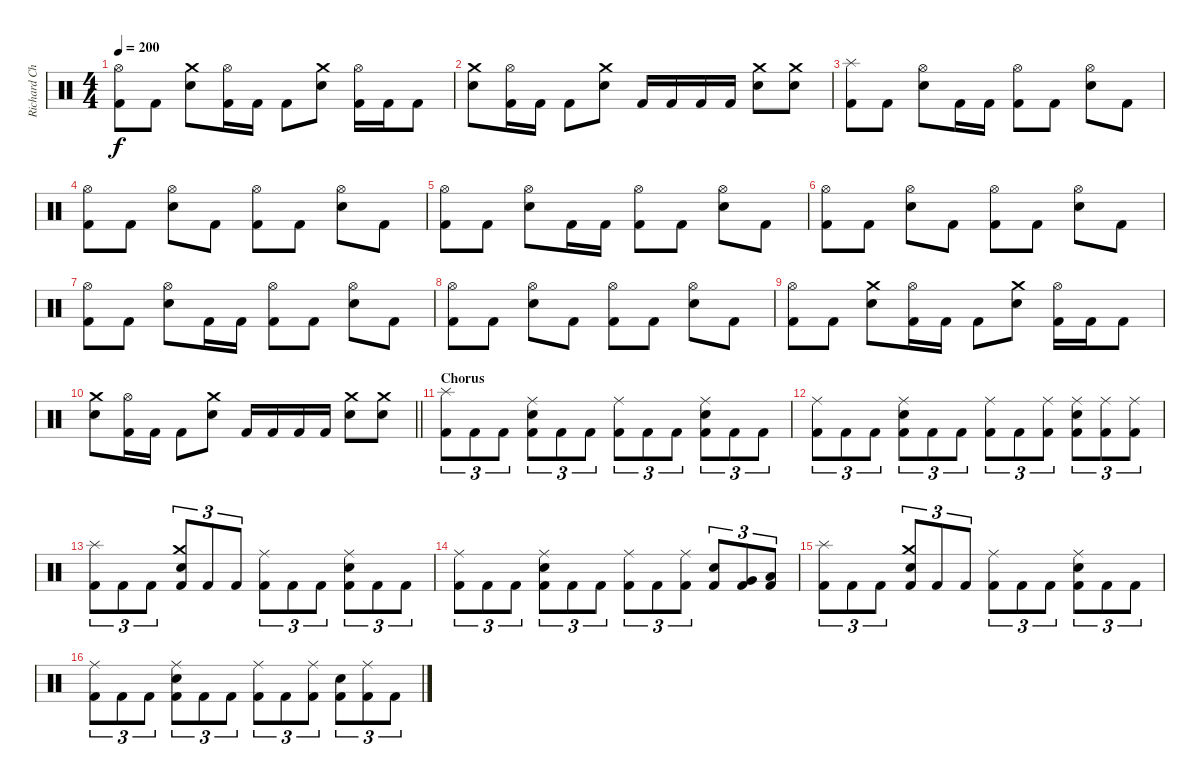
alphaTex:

\track ("Richard Christy" "Richard Ch") {instrument percussion}
\staff {score}
\articulation defaults
\ts (4 4)
\tempo 200
\clef neutral
\ks c
("Hi-Hat (open)" "Kick (hit) 2").8{dy f} "Kick (hit) 2".8 ("Crash medium (hit)" "Electric Snare (hit)").8 ("Hi-Hat (open)" "Kick (hit) 2").16 "Kick (hit) 2".16 "Kick (hit) 2".8 ("Crash medium (hit)" "Electric Snare (hit)").8 ("Hi-Hat (open)" "Kick (hit) 2").16 "Kick (hit) 2".16 "Kick (hit) 2".8 |
("Crash medium (hit)" "Electric Snare (hit)").8 ("Hi-Hat (open)" "Kick (hit) 2").16 "Kick (hit) 2".16 "Kick (hit) 2".8 ("Crash medium (hit)" "Electric Snare (hit)").8 "Kick (hit) 2".16 "Kick (hit) 2".16 "Kick (hit) 2".16 "Kick (hit) 2".16 ("Crash medium (hit)" "Electric Snare (hit)").8 ("Crash medium (hit)" "Electric Snare (hit)").8 |
("Splash (hit)" "Kick (hit) 2").8 "Kick (hit) 2".8 ("Hi-Hat (open)" "Electric Snare (hit)").8 "Kick (hit) 2".16 "Kick (hit) 2".16 ("Hi-Hat (open)" "Kick (hit) 2").8 "Kick (hit) 2".8 ("Hi-Hat (open)" "Electric Snare (hit)").8 "Kick (hit) 2".8 |
("Hi-Hat (open)" "Kick (hit) 2").8 "Kick (hit) 2".8 ("Hi-Hat (open)" "Electric Snare (hit)").8 "Kick (hit) 2".8 ("Hi-Hat (open)" "Kick (hit) 2").8 "Kick (hit) 2".8 ("Hi-Hat (open)" "Electric Snare (hit)").8 "Kick (hit) 2".8 |
("Hi-Hat (open)" "Kick (hit) 2").8 "Kick (hit) 2".8 ("Hi-Hat (open)" "Electric Snare (hit)").8 "Kick (hit) 2".16 "Kick (hit) 2".16 ("Hi-Hat (open)" "Kick (hit) 2").8 "Kick (hit) 2".8 ("Hi-Hat (open)" "Electric Snare (hit)").8 "Kick (hit) 2".8 |
("Hi-Hat (open)" "Kick (hit) 2").8 "Kick (hit) 2".8 ("Hi-Hat (open)" "Electric Snare (hit)").8 "Kick (hit) 2".8 ("Hi-Hat (open)" "Kick (hit) 2").8 "Kick (hit) 2".8 ("Hi-Hat (open)" "Electric Snare (hit)").8 "Kick (hit) 2".8 |
("Hi-Hat (open)" "Kick (hit) 2").8 "Kick (hit) 2".8 ("Hi-Hat (open)" "Electric Snare (hit)").8 "Kick (hit) 2".16 "Kick (hit) 2".16 ("Hi-Hat (open)" "Kick (hit) 2").8 "Kick (hit) 2".8 ("Hi-Hat (open)" "Electric Snare (hit)").8 "Kick (hit) 2".8 |
("Hi-Hat (open)" "Kick (hit) 2").8 "Kick (hit) 2".8 ("Hi-Hat (open)" "Electric Snare (hit)").8 "Kick (hit) 2".8 ("Hi-Hat (open)" "Kick (hit) 2").8 "Kick (hit) 2".8 ("Hi-Hat (open)" "Electric Snare (hit)").8 "Kick (hit) 2".8 |
("Hi-Hat (open)" "Kick (hit) 2").8 "Kick (hit) 2".8 ("Crash medium (hit)" "Electric Snare (hit)").8 ("Hi-Hat (open)" "Kick (hit) 2").16 "Kick (hit) 2".16 "Kick (hit) 2".8 ("Crash medium (hit)" "Electric Snare (hit)").8 ("Hi-Hat (open)" "Kick (hit) 2").16 "Kick (hit) 2".16 "Kick (hit) 2".8 |
\barLineRight lightlight
("Crash medium (hit)" "Electric Snare (hit)").8 ("Hi-Hat (open)" "Kick (hit) 2").16 "Kick (hit) 2".16 "Kick (hit) 2".8 ("Crash medium (hit)" "Electric Snare (hit)").8 "Kick (hit) 2".16 "Kick (hit) 2".16 "Kick (hit) 2".16 "Kick (hit) 2".16 ("Crash medium (hit)" "Electric Snare (hit)").8 ("Crash medium (hit)" "Electric Snare (hit)").8 |
\section ("" "Chorus")
("Splash (hit)" "Kick (hit) 2").8{tu (3 2)} "Kick (hit) 2".8{tu (3 2)} "Kick (hit) 2".8{tu (3 2)} ("Ride (middle)" "Electric Snare (hit)" "Kick (hit) 2").8{tu (3 2)} "Kick (hit) 2".8{tu (3 2)} "Kick (hit) 2".8{tu (3 2)} ("Ride (middle)" "Kick (hit) 2").8{tu (3 2)} "Kick (hit) 2".8{tu (3 2)} "Kick (hit) 2".8{tu (3 2)} ("Ride (middle)" "Electric Snare (hit)" "Kick (hit) 2").8{tu (3 2)} "Kick (hit) 2".8{tu (3 2)} "Kick (hit) 2".8{tu (3 2)} |
("Ride (middle)" "Kick (hit) 2").8{tu (3 2)} "Kick (hit) 2".8{tu (3 2)} "Kick (hit) 2".8{tu (3 2)} ("Ride (middle)" "Electric Snare (hit)" "Kick (hit) 2").8{tu (3 2)} "Kick (hit) 2".8{tu (3 2)} "Kick (hit) 2".8{tu (3 2)} ("Ride (middle)" "Kick (hit) 2").8{tu (3 2)} "Kick (hit) 2".8{tu (3 2)} ("Ride (middle)" "Kick (hit) 2").8{tu (3 2)} ("Ride (middle)" "Electric Snare (hit)" "Kick (hit) 2").8{tu (3 2)} ("Ride (middle)" "Kick (hit) 2").8{tu (3 2)} ("Ride (middle)" "Kick (hit) 2").8{tu (3 2)} |
("Splash (hit)" "Kick (hit) 2").8{tu (3 2)} "Kick (hit) 2".8{tu (3 2)} "Kick (hit) 2".8{tu (3 2)} ("Crash medium (hit)" "Electric Snare (hit)" "Kick (hit) 2").8{tu (3 2)} "Kick (hit) 2".8{tu (3 2)} "Kick (hit) 2".8{tu (3 2)} ("Ride (middle)" "Kick (hit) 2").8{tu (3 2)} "Kick (hit) 2".8{tu (3 2)} "Kick (hit) 2".8{tu (3 2)} ("Ride (middle)" "Electric Snare (hit)" "Kick (hit) 2").8{tu (3 2)} "Kick (hit) 2".8{tu (3 2)} "Kick (hit) 2".8{tu (3 2)} |
("Ride (middle)" "Kick (hit) 2").8{tu (3 2)} "Kick (hit) 2".8{tu (3 2)} "Kick (hit) 2".8{tu (3 2)} ("Ride (middle)" "Electric Snare (hit)" "Kick (hit) 2").8{tu (3 2)} "Kick (hit) 2".8{tu (3 2)} "Kick (hit) 2".8{tu (3 2)} ("Ride (middle)" "Kick (hit) 2").8{tu (3 2)} "Kick (hit) 2".8{tu (3 2)} ("Ride (middle)" "Kick (hit) 2").8{tu (3 2)} ("Electric Snare (hit)" "Kick (hit) 2").8{tu (3 2)} ("Very Low Tom (hit)" "Kick (hit) 2").8{tu (3 2)} ("Low Floor Tom (hit)" "Kick (hit) 2").8{tu (3 2)} |
("Splash (hit)" "Kick (hit) 2").8{tu (3 2)} "Kick (hit) 2".8{tu (3 2)} "Kick (hit) 2".8{tu (3 2)} ("Crash medium (hit)" "Electric Snare (hit)" "Kick (hit) 2").8{tu (3 2)} "Kick (hit) 2".8{tu (3 2)} "Kick (hit) 2".8{tu (3 2)} ("Ride (middle)" "Kick (hit) 2").8{tu (3 2)} "Kick (hit) 2".8{tu (3 2)} "Kick (hit) 2".8{tu (3 2)} ("Ride (middle)" "Electric Snare (hit)" "Kick (hit) 2").8{tu (3 2)} "Kick (hit) 2".8{tu (3 2)} "Kick (hit) 2".8{tu (3 2)} |
("Ride (middle)" "Kick (hit) 2").8{tu (3 2)} "Kick (hit) 2".8{tu (3 2)} "Kick (hit) 2".8{tu (3 2)} ("Ride (middle)" "Electric Snare (hit)" "Kick (hit) 2").8{tu (3 2)} "Kick (hit) 2".8{tu (3 2)} "Kick (hit) 2".8{tu (3 2)} ("Ride (middle)" "Kick (hit) 2").8{tu (3 2)} "Kick (hit) 2".8{tu (3 2)} ("Ride (middle)" "Kick (hit) 2").8{tu (3 2)} ("Electric Snare (hit)" "Kick (hit) 2").8{tu (3 2)} ("Ride (middle)" "Kick (hit) 2").8{tu (3 2)} "Kick (hit) 2".8{tu (3 2)}
